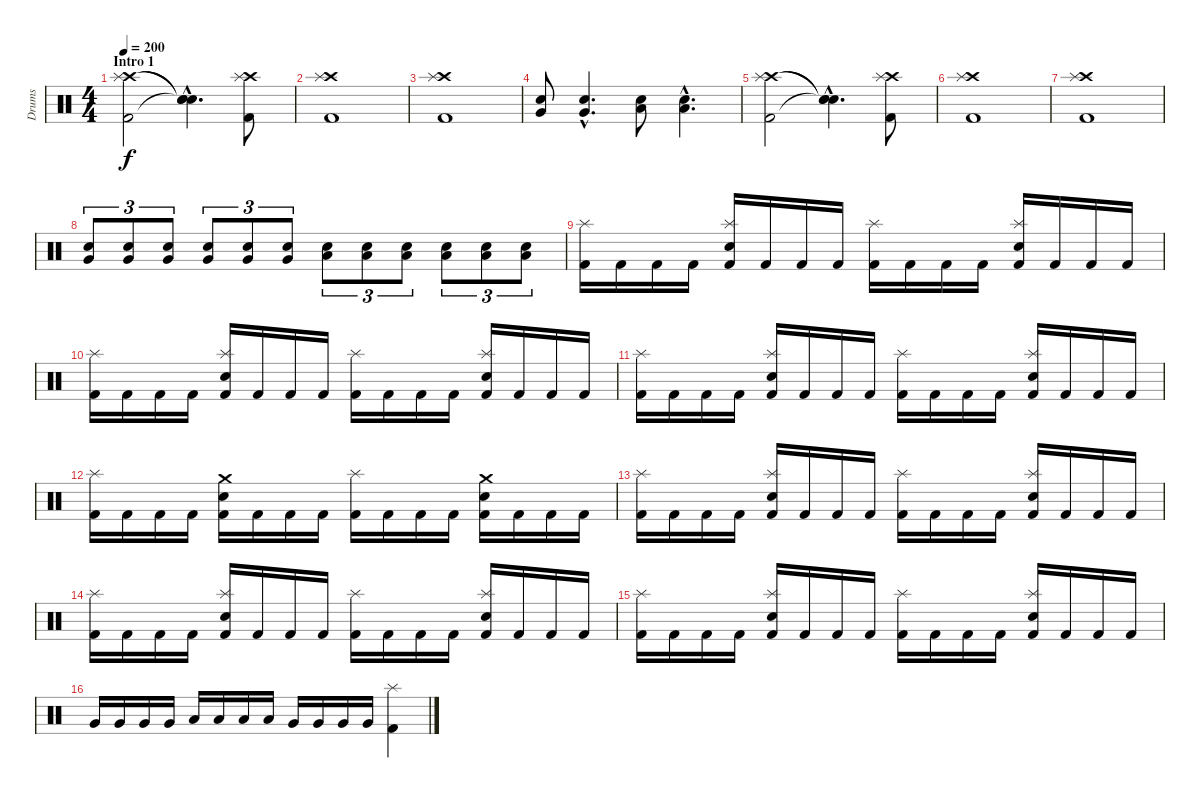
\track ("Drums" "Drums") {instrument percussion}
\staff {score}
\articulation defaults
\ts (4 4)
\section ("" "Intro 1")
\tempo 200
\clef neutral
\ks c
("Kick (hit) 2" "Crash high (hit)" "Splash (hit)").2{dy f} ("Snare (hit)"{hac t} "Snare (hit)"{hac t} "Snare (hit)"{hac t}).4{d} ("Kick (hit) 2" "Crash high (hit)" "Splash (hit)").8 |
("Kick (hit) 2" "Crash high (hit)" "Splash (hit)").1 |
("Kick (hit) 2" "Crash high (hit)" "Splash (hit)").1 |
("Very Low Tom (hit)" "Snare (hit) 2").8 ("Very Low Tom (hit)"{hac} "Snare (hit) 2"{hac}).4{d} ("Low Floor Tom (hit)" "Snare (hit) 2").8 ("Low Floor Tom (hit)"{hac} "Snare (hit) 2"{hac}).4{d} |
("Kick (hit) 2" "Crash high (hit)" "Splash (hit)").2 ("Snare (hit)"{hac t} "Snare (hit)"{hac t} "Snare (hit)"{hac t}).4{d} ("Kick (hit) 2" "Crash high (hit)" "Splash (hit)").8 |
("Kick (hit) 2" "Crash high (hit)" "Splash (hit)").1 |
("Kick (hit) 2" "Crash high (hit)" "Splash (hit)").1 |
("Very Low Tom (hit)" "Snare (hit) 2").8{tu (3 2)} ("Very Low Tom (hit)" "Snare (hit) 2").8{tu (3 2)} ("Very Low Tom (hit)" "Snare (hit) 2").8{tu (3 2)} ("Very Low Tom (hit)" "Snare (hit) 2").8{tu (3 2)} ("Very Low Tom (hit)" "Snare (hit) 2").8{tu (3 2)} ("Very Low Tom (hit)" "Snare (hit) 2").8{tu (3 2)} ("Low Floor Tom (hit)" "Snare (hit) 2").8{tu (3 2)} ("Low Floor Tom (hit)" "Snare (hit) 2").8{tu (3 2)} ("Low Floor Tom (hit)" "Snare (hit) 2").8{tu (3 2)} ("Low Floor Tom (hit)" "Snare (hit) 2").8{tu (3 2)} ("Low Floor Tom (hit)" "Snare (hit) 2").8{tu (3 2)} ("Low Floor Tom (hit)" "Snare (hit) 2").8{tu (3 2)} |
("Kick (hit) 2" "Splash (hit)").16 "Kick (hit) 2".16 "Kick (hit) 2".16 "Kick (hit) 2".16 ("Kick (hit) 2" "Splash (hit)" "Snare (hit) 2").16 "Kick (hit) 2".16 "Kick (hit) 2".16 "Kick (hit) 2".16 ("Kick (hit) 2" "Splash (hit)").16 "Kick (hit) 2".16 "Kick (hit) 2".16 "Kick (hit) 2".16 ("Kick (hit) 2" "Splash (hit)" "Snare (hit) 2").16 "Kick (hit) 2".16 "Kick (hit) 2".16 "Kick (hit) 2".16 |
("Kick (hit) 2" "Splash (hit)").16 "Kick (hit) 2".16 "Kick (hit) 2".16 "Kick (hit) 2".16 ("Kick (hit) 2" "Splash (hit)" "Snare (hit) 2").16 "Kick (hit) 2".16 "Kick (hit) 2".16 "Kick (hit) 2".16 ("Kick (hit) 2" "Splash (hit)").16 "Kick (hit) 2".16 "Kick (hit) 2".16 "Kick (hit) 2".16 ("Kick (hit) 2" "Splash (hit)" "Snare (hit) 2").16 "Kick (hit) 2".16 "Kick (hit) 2".16 "Kick (hit) 2".16 |
("Kick (hit) 2" "Splash (hit)").16 "Kick (hit) 2".16 "Kick (hit) 2".16 "Kick (hit) 2".16 ("Kick (hit) 2" "Splash (hit)" "Snare (hit) 2").16 "Kick (hit) 2".16 "Kick (hit) 2".16 "Kick (hit) 2".16 ("Kick (hit) 2" "Splash (hit)").16 "Kick (hit) 2".16 "Kick (hit) 2".16 "Kick (hit) 2".16 ("Kick (hit) 2" "Splash (hit)" "Snare (hit) 2").16 "Kick (hit) 2".16 "Kick (hit) 2".16 "Kick (hit) 2".16 |
("Kick (hit) 2" "Splash (hit)").16 "Kick (hit) 2".16 "Kick (hit) 2".16 "Kick (hit) 2".16 ("Kick (hit) 2" "Crash medium (hit)" "Snare (hit) 2").16 "Kick (hit) 2".16 "Kick (hit) 2".16 "Kick (hit) 2".16 ("Kick (hit) 2" "Splash (hit)").16 "Kick (hit) 2".16 "Kick (hit) 2".16 "Kick (hit) 2".16 ("Kick (hit) 2" "Crash medium (hit)" "Snare (hit) 2").16 "Kick (hit) 2".16 "Kick (hit) 2".16 "Kick (hit) 2".16 |
("Kick (hit) 2" "Splash (hit)").16 "Kick (hit) 2".16 "Kick (hit) 2".16 "Kick (hit) 2".16 ("Kick (hit) 2" "Splash (hit)" "Snare (hit) 2").16 "Kick (hit) 2".16 "Kick (hit) 2".16 "Kick (hit) 2".16 ("Kick (hit) 2" "Splash (hit)").16 "Kick (hit) 2".16 "Kick (hit) 2".16 "Kick (hit) 2".16 ("Kick (hit) 2" "Splash (hit)" "Snare (hit) 2").16 "Kick (hit) 2".16 "Kick (hit) 2".16 "Kick (hit) 2".16 |
("Kick (hit) 2" "Splash (hit)").16 "Kick (hit) 2".16 "Kick (hit) 2".16 "Kick (hit) 2".16 ("Kick (hit) 2" "Splash (hit)" "Snare (hit) 2").16 "Kick (hit) 2".16 "Kick (hit) 2".16 "Kick (hit) 2".16 ("Kick (hit) 2" "Splash (hit)").16 "Kick (hit) 2".16 "Kick (hit) 2".16 "Kick (hit) 2".16 ("Kick (hit) 2" "Splash (hit)" "Snare (hit) 2").16 "Kick (hit) 2".16 "Kick (hit) 2".16 "Kick (hit) 2".16 |
("Kick (hit) 2" "Splash (hit)").16 "Kick (hit) 2".16 "Kick (hit) 2".16 "Kick (hit) 2".16 ("Kick (hit) 2" "Splash (hit)" "Snare (hit) 2").16 "Kick (hit) 2".16 "Kick (hit) 2".16 "Kick (hit) 2".16 ("Kick (hit) 2" "Splash (hit)").16 "Kick (hit) 2".16 "Kick (hit) 2".16 "Kick (hit) 2".16 ("Kick (hit) 2" "Splash (hit)" "Snare (hit) 2").16 "Kick (hit) 2".16 "Kick (hit) 2".16 "Kick (hit) 2".16 |
"Very Low Tom (hit)".16 "Very Low Tom (hit)".16 "Very Low Tom (hit)".16 "Very Low Tom (hit)".16 "Low Floor Tom (hit)".16 "Low Floor Tom (hit)".16 "Low Floor Tom (hit)".16 "Low Floor Tom (hit)".16 "Very Low Tom (hit)".16 "Very Low Tom (hit)".16 "Very Low Tom (hit)".16 "Very Low Tom (hit)".16 ("Kick (hit) 2" "Splash (hit)").4
